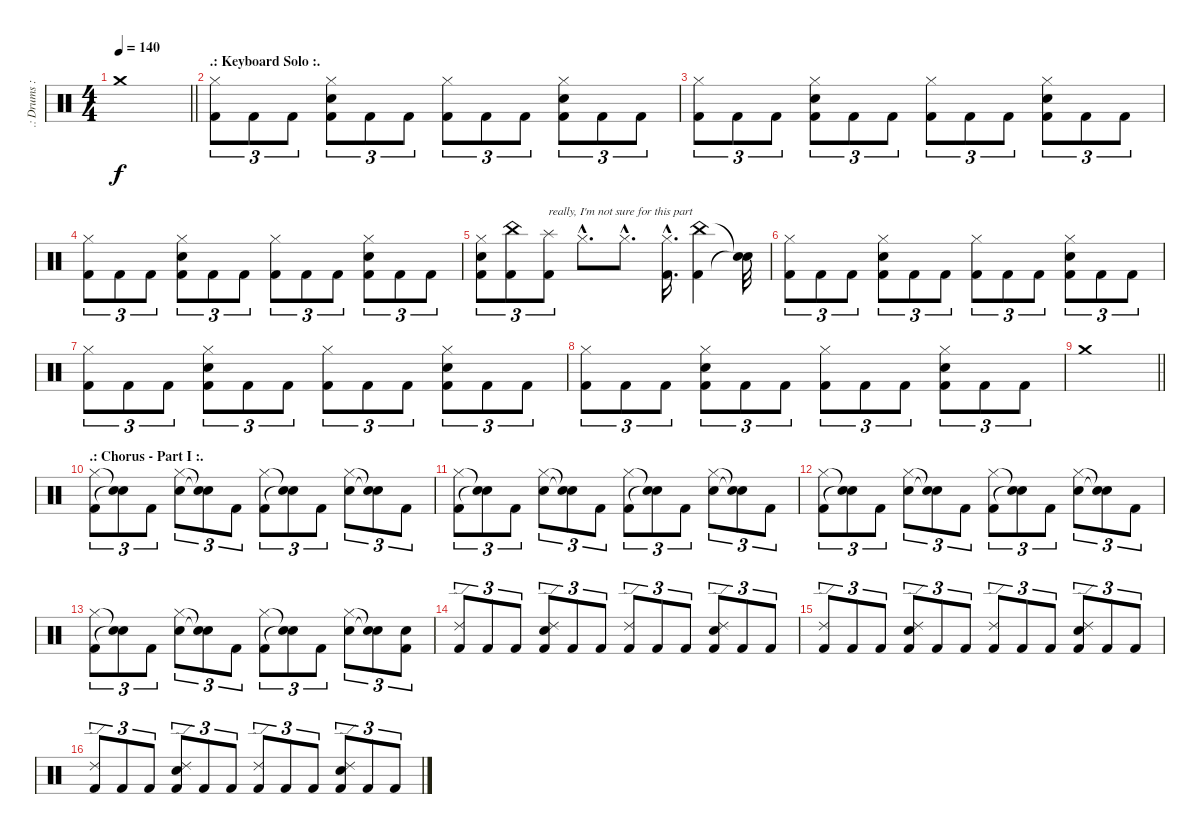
\track (".: Drums :." ".: Drums :") {instrument percussion}
\staff {score}
\articulation defaults
\ts (4 4)
\tempo 140
\clef neutral
\barLineRight lightlight
\ks c "Crash medium (hit)".1{dy f}
|
\section ("" ".: Keyboard Solo :.")
("Hi-Hat (closed)" "Kick (hit) 2").8{tu (3 2)} "Kick (hit) 2".8{tu (3 2)} "Kick (hit) 2".8{tu (3 2)} ("Hi-Hat (closed)" "Snare (hit) 2" "Kick (hit) 2").8{tu (3 2)} "Kick (hit) 2".8{tu (3 2)} "Kick (hit) 2".8{tu (3 2)} ("Hi-Hat (closed)" "Kick (hit) 2").8{tu (3 2)} "Kick (hit) 2".8{tu (3 2)} "Kick (hit) 2".8{tu (3 2)} ("Hi-Hat (closed)" "Snare (hit) 2" "Kick (hit) 2").8{tu (3 2)} "Kick (hit) 2".8{tu (3 2)} "Kick (hit) 2".8{tu (3 2)} |
("Hi-Hat (closed)" "Kick (hit) 2").8{tu (3 2)} "Kick (hit) 2".8{tu (3 2)} "Kick (hit) 2".8{tu (3 2)} ("Hi-Hat (closed)" "Snare (hit) 2" "Kick (hit) 2").8{tu (3 2)} "Kick (hit) 2".8{tu (3 2)} "Kick (hit) 2".8{tu (3 2)} ("Hi-Hat (closed)" "Kick (hit) 2").8{tu (3 2)} "Kick (hit) 2".8{tu (3 2)} "Kick (hit) 2".8{tu (3 2)} ("Hi-Hat (closed)" "Snare (hit) 2" "Kick (hit) 2").8{tu (3 2)} "Kick (hit) 2".8{tu (3 2)} "Kick (hit) 2".8{tu (3 2)} |
("Hi-Hat (closed)" "Kick (hit) 2").8{tu (3 2)} "Kick (hit) 2".8{tu (3 2)} "Kick (hit) 2".8{tu (3 2)} ("Hi-Hat (closed)" "Snare (hit) 2" "Kick (hit) 2").8{tu (3 2)} "Kick (hit) 2".8{tu (3 2)} "Kick (hit) 2".8{tu (3 2)} ("Hi-Hat (closed)" "Kick (hit) 2").8{tu (3 2)} "Kick (hit) 2".8{tu (3 2)} "Kick (hit) 2".8{tu (3 2)} ("Hi-Hat (closed)" "Snare (hit) 2" "Kick (hit) 2").8{tu (3 2)} "Kick (hit) 2".8{tu (3 2)} "Kick (hit) 2".8{tu (3 2)} |
("Hi-Hat (closed)" "Snare (hit) 2" "Kick (hit) 2").8{tu (3 2)} ("China (hit)" "Kick (hit) 2").8{tu (3 2)} ("Splash (hit)" "Kick (hit) 2").8{tu (3 2) txt "really, I'm not sure for this part"} "Hi-Hat (closed)"{hac}.8{d} "Hi-Hat (closed)"{hac}.8{d} ("Hi-Hat (closed)"{hac} "Kick (hit) 2"{hac}).16{d} ("China (hit)" "Kick (hit) 2").4 ("Snare (hit)"{t} "Snare (hit)"{t}).32 |
("Hi-Hat (closed)" "Kick (hit) 2").8{tu (3 2)} "Kick (hit) 2".8{tu (3 2)} "Kick (hit) 2".8{tu (3 2)} ("Hi-Hat (closed)" "Snare (hit) 2" "Kick (hit) 2").8{tu (3 2)} "Kick (hit) 2".8{tu (3 2)} "Kick (hit) 2".8{tu (3 2)} ("Hi-Hat (closed)" "Kick (hit) 2").8{tu (3 2)} "Kick (hit) 2".8{tu (3 2)} "Kick (hit) 2".8{tu (3 2)} ("Hi-Hat (closed)" "Snare (hit) 2" "Kick (hit) 2").8{tu (3 2)} "Kick (hit) 2".8{tu (3 2)} "Kick (hit) 2".8{tu (3 2)} |
("Hi-Hat (closed)" "Kick (hit) 2").8{tu (3 2)} "Kick (hit) 2".8{tu (3 2)} "Kick (hit) 2".8{tu (3 2)} ("Hi-Hat (closed)" "Snare (hit) 2" "Kick (hit) 2").8{tu (3 2)} "Kick (hit) 2".8{tu (3 2)} "Kick (hit) 2".8{tu (3 2)} ("Hi-Hat (closed)" "Kick (hit) 2").8{tu (3 2)} "Kick (hit) 2".8{tu (3 2)} "Kick (hit) 2".8{tu (3 2)} ("Hi-Hat (closed)" "Snare (hit) 2" "Kick (hit) 2").8{tu (3 2)} "Kick (hit) 2".8{tu (3 2)} "Kick (hit) 2".8{tu (3 2)} |
("Hi-Hat (closed)" "Kick (hit) 2").8{tu (3 2)} "Kick (hit) 2".8{tu (3 2)} "Kick (hit) 2".8{tu (3 2)} ("Hi-Hat (closed)" "Snare (hit) 2" "Kick (hit) 2").8{tu (3 2)} "Kick (hit) 2".8{tu (3 2)} "Kick (hit) 2".8{tu (3 2)} ("Hi-Hat (closed)" "Kick (hit) 2").8{tu (3 2)} "Kick (hit) 2".8{tu (3 2)} "Kick (hit) 2".8{tu (3 2)} ("Hi-Hat (closed)" "Snare (hit) 2" "Kick (hit) 2").8{tu (3 2)} "Kick (hit) 2".8{tu (3 2)} "Kick (hit) 2".8{tu (3 2)} |
\barLineRight lightlight "Crash medium (hit)".1
|
\section ("" ".: Chorus - Part I :.")
("Hi-Hat (closed)" "Kick (hit) 2").8{tu (3 2)} ("Snare (hit)"{t} "Snare (hit)"{t}).8{tu (3 2)} "Kick (hit) 2".8{tu (3 2)} ("Hi-Hat (closed)" "Snare (hit) 2").8{tu (3 2)} ("Snare (hit)"{t} "Snare (hit)"{t}).8{tu (3 2)} "Kick (hit) 2".8{tu (3 2)} ("Hi-Hat (closed)" "Kick (hit) 2").8{tu (3 2)} ("Snare (hit)"{t} "Snare (hit)"{t}).8{tu (3 2)} "Kick (hit) 2".8{tu (3 2)} ("Hi-Hat (closed)" "Snare (hit) 2").8{tu (3 2)} ("Snare (hit)"{t} "Snare (hit)"{t}).8{tu (3 2)} "Kick (hit) 2".8{tu (3 2)} |
("Hi-Hat (closed)" "Kick (hit) 2").8{tu (3 2)} ("Snare (hit)"{t} "Snare (hit)"{t}).8{tu (3 2)} "Kick (hit) 2".8{tu (3 2)} ("Hi-Hat (closed)" "Snare (hit) 2").8{tu (3 2)} ("Snare (hit)"{t} "Snare (hit)"{t}).8{tu (3 2)} "Kick (hit) 2".8{tu (3 2)} ("Hi-Hat (closed)" "Kick (hit) 2").8{tu (3 2)} ("Snare (hit)"{t} "Snare (hit)"{t}).8{tu (3 2)} "Kick (hit) 2".8{tu (3 2)} ("Hi-Hat (closed)" "Snare (hit) 2").8{tu (3 2)} ("Snare (hit)"{t} "Snare (hit)"{t}).8{tu (3 2)} "Kick (hit) 2".8{tu (3 2)} |
("Hi-Hat (closed)" "Kick (hit) 2").8{tu (3 2)} ("Snare (hit)"{t} "Snare (hit)"{t}).8{tu (3 2)} "Kick (hit) 2".8{tu (3 2)} ("Hi-Hat (closed)" "Snare (hit) 2").8{tu (3 2)} ("Snare (hit)"{t} "Snare (hit)"{t}).8{tu (3 2)} "Kick (hit) 2".8{tu (3 2)} ("Hi-Hat (closed)" "Kick (hit) 2").8{tu (3 2)} ("Snare (hit)"{t} "Snare (hit)"{t}).8{tu (3 2)} "Kick (hit) 2".8{tu (3 2)} ("Hi-Hat (closed)" "Snare (hit) 2").8{tu (3 2)} ("Snare (hit)"{t} "Snare (hit)"{t}).8{tu (3 2)} "Kick (hit) 2".8{tu (3 2)} |
("Hi-Hat (closed)" "Kick (hit) 2").8{tu (3 2)} ("Snare (hit)"{t} "Snare (hit)"{t}).8{tu (3 2)} "Kick (hit) 2".8{tu (3 2)} ("Hi-Hat (closed)" "Snare (hit) 2").8{tu (3 2)} ("Snare (hit)"{t} "Snare (hit)"{t}).8{tu (3 2)} "Kick (hit) 2".8{tu (3 2)} ("Hi-Hat (closed)" "Kick (hit) 2").8{tu (3 2)} ("Snare (hit)"{t} "Snare (hit)"{t}).8{tu (3 2)} "Kick (hit) 2".8{tu (3 2)} ("Hi-Hat (closed)" "Snare (hit) 2").8{tu (3 2)} ("Snare (hit)"{t} "Snare (hit)"{t}).8{tu (3 2)} ("Snare (hit) 2" "Kick (hit) 2").8{tu (3 2)} |
("Ride (edge) 2" "Kick (hit) 2").8{tu (3 2)} "Kick (hit) 2".8{tu (3 2)} "Kick (hit) 2".8{tu (3 2)} ("Ride (edge) 2" "Snare (hit) 2" "Kick (hit) 2").8{tu (3 2)} "Kick (hit) 2".8{tu (3 2)} "Kick (hit) 2".8{tu (3 2)} ("Ride (edge) 2" "Kick (hit) 2").8{tu (3 2)} "Kick (hit) 2".8{tu (3 2)} "Kick (hit) 2".8{tu (3 2)} ("Ride (edge) 2" "Snare (hit) 2" "Kick (hit) 2").8{tu (3 2)} "Kick (hit) 2".8{tu (3 2)} "Kick (hit) 2".8{tu (3 2)} |
("Ride (edge) 2" "Kick (hit) 2").8{tu (3 2)} "Kick (hit) 2".8{tu (3 2)} "Kick (hit) 2".8{tu (3 2)} ("Ride (edge) 2" "Snare (hit) 2" "Kick (hit) 2").8{tu (3 2)} "Kick (hit) 2".8{tu (3 2)} "Kick (hit) 2".8{tu (3 2)} ("Ride (edge) 2" "Kick (hit) 2").8{tu (3 2)} "Kick (hit) 2".8{tu (3 2)} "Kick (hit) 2".8{tu (3 2)} ("Ride (edge) 2" "Snare (hit) 2" "Kick (hit) 2").8{tu (3 2)} "Kick (hit) 2".8{tu (3 2)} "Kick (hit) 2".8{tu (3 2)} |
("Ride (edge) 2" "Kick (hit) 2").8{tu (3 2)} "Kick (hit) 2".8{tu (3 2)} "Kick (hit) 2".8{tu (3 2)} ("Ride (edge) 2" "Snare (hit) 2" "Kick (hit) 2").8{tu (3 2)} "Kick (hit) 2".8{tu (3 2)} "Kick (hit) 2".8{tu (3 2)} ("Ride (edge) 2" "Kick (hit) 2").8{tu (3 2)} "Kick (hit) 2".8{tu (3 2)} "Kick (hit) 2".8{tu (3 2)} ("Ride (edge) 2" "Snare (hit) 2" "Kick (hit) 2").8{tu (3 2)} "Kick (hit) 2".8{tu (3 2)} "Kick (hit) 2".8{tu (3 2)}
